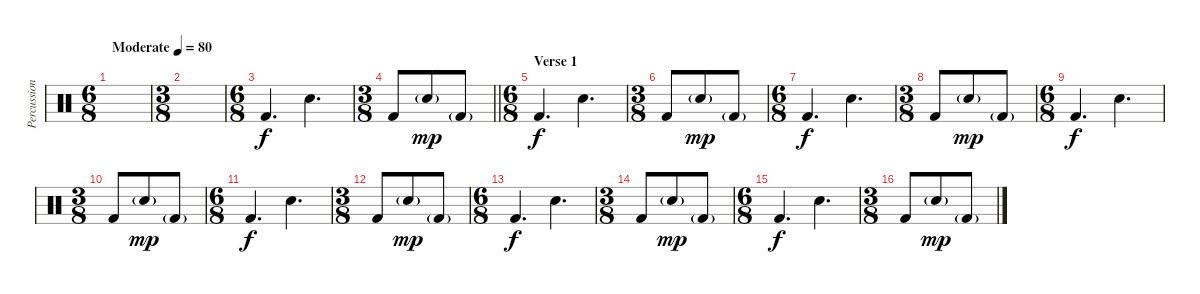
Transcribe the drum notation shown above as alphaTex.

\track ("Percussion" "Percussion") {instrument percussion}
\staff {score}
\articulation defaults
\ts (6 8)
\tempo (80 "Moderate")
\clef neutral
\ks c
|
\ts (3 8)
|
\ts (6 8)
"Kick (hit) 2".4{d} "Snare (hit) 2".4{d} |
\ts (3 8)
\barLineRight lightlight "Kick (hit) 2".8 "Snare (hit) 2"{g}.8{dy mp} "Kick (hit) 2"{g}.8
|
\ts (6 8)
\section ("" "Verse 1")
"Kick (hit) 2".4{d dy f} "Snare (hit) 2".4{d} |
\ts (3 8)
"Kick (hit) 2".8 "Snare (hit) 2"{g}.8{dy mp} "Kick (hit) 2"{g}.8 |
\ts (6 8)
"Kick (hit) 2".4{d dy f} "Snare (hit) 2".4{d} |
\ts (3 8)
"Kick (hit) 2".8 "Snare (hit) 2"{g}.8{dy mp} "Kick (hit) 2"{g}.8 |
\ts (6 8)
"Kick (hit) 2".4{d dy f} "Snare (hit) 2".4{d} |
\ts (3 8)
"Kick (hit) 2".8 "Snare (hit) 2"{g}.8{dy mp} "Kick (hit) 2"{g}.8 |
\ts (6 8)
"Kick (hit) 2".4{d dy f} "Snare (hit) 2".4{d} |
\ts (3 8)
"Kick (hit) 2".8 "Snare (hit) 2"{g}.8{dy mp} "Kick (hit) 2"{g}.8 |
\ts (6 8)
"Kick (hit) 2".4{d dy f} "Snare (hit) 2".4{d} |
\ts (3 8)
"Kick (hit) 2".8 "Snare (hit) 2"{g}.8{dy mp} "Kick (hit) 2"{g}.8 |
\ts (6 8)
"Kick (hit) 2".4{d dy f} "Snare (hit) 2".4{d} |
\ts (3 8)
"Kick (hit) 2".8 "Snare (hit) 2"{g}.8{dy mp} "Kick (hit) 2"{g}.8
